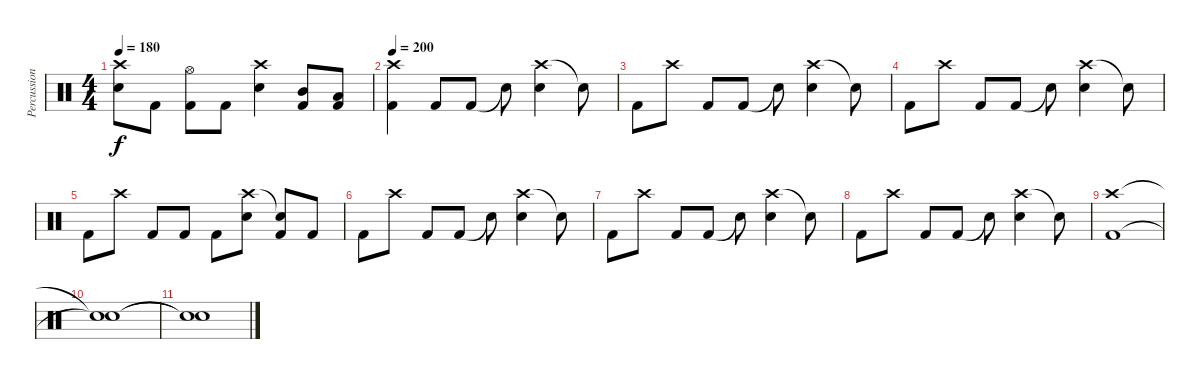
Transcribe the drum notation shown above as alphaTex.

\track ("Percussion" "Percussion") {instrument percussion}
\staff {score}
\articulation defaults
\ts (4 4)
\tempo 180
\clef neutral
\ks c
("Crash high (hit)" "Snare (hit) 2").8{dy f} "Kick (hit) 2".8 ("Hi-Hat (open)" "Kick (hit) 2").8 "Kick (hit) 2".8 ("Crash high (hit)" "Snare (hit) 2").4 ("Mid Tom (hit)" "Kick (hit) 2").8 ("Low Tom (hit)" "Kick (hit) 2").8 |
\tempo 200
("Crash high (hit)" "Kick (hit) 2").4 "Kick (hit) 2".8 "Kick (hit) 2".8 "Snare (hit)"{t}.8 ("Crash high (hit)" "Snare (hit) 2").4 "Snare (hit)"{t}.8 |
"Kick (hit) 2".8 "Crash high (hit)".8 "Kick (hit) 2".8 "Kick (hit) 2".8 "Snare (hit)"{t}.8 ("Crash high (hit)" "Snare (hit) 2").4 "Snare (hit)"{t}.8 |
"Kick (hit) 2".8 "Crash high (hit)".8 "Kick (hit) 2".8 "Kick (hit) 2".8 "Snare (hit)"{t}.8 ("Crash high (hit)" "Snare (hit) 2").4 "Snare (hit)"{t}.8 |
"Kick (hit) 2".8 "Crash high (hit)".8 "Kick (hit) 2".8 "Kick (hit) 2".8 "Kick (hit) 2".8 ("Crash high (hit)" "Snare (hit) 2").8 ("Snare (hit)"{t} "Kick (hit) 2").8 "Kick (hit) 2".8 |
"Kick (hit) 2".8 "Crash high (hit)".8 "Kick (hit) 2".8 "Kick (hit) 2".8 "Snare (hit)"{t}.8 ("Crash high (hit)" "Snare (hit) 2").4 "Snare (hit)"{t}.8 |
"Kick (hit) 2".8 "Crash high (hit)".8 "Kick (hit) 2".8 "Kick (hit) 2".8 "Snare (hit)"{t}.8 ("Crash high (hit)" "Snare (hit) 2").4 "Snare (hit)"{t}.8 |
"Kick (hit) 2".8 "Crash high (hit)".8 "Kick (hit) 2".8 "Kick (hit) 2".8 "Snare (hit)"{t}.8 ("Crash high (hit)" "Snare (hit) 2").4 "Snare (hit)"{t}.8 |
("Crash high (hit)" "Kick (hit) 2").1 |
("Snare (hit)"{t} "Snare (hit)"{t}).1 |
("Snare (hit)"{t} "Snare (hit)"{t}).1
